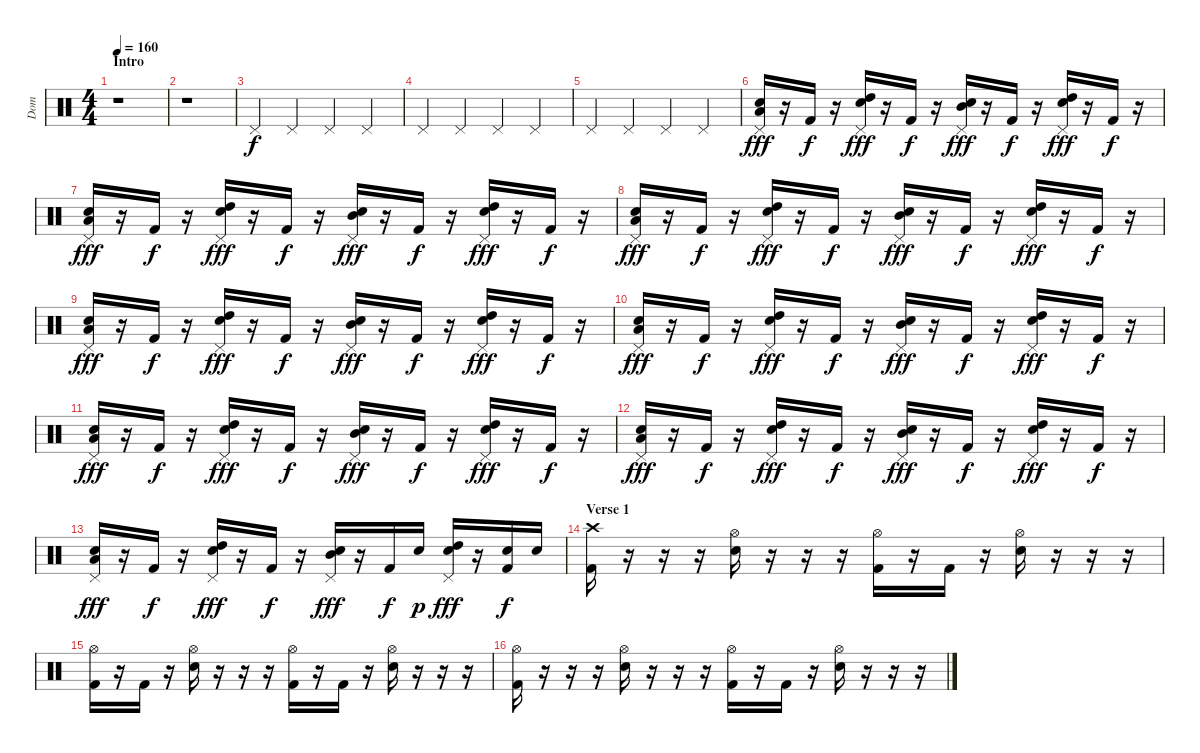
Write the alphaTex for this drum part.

\track ("Dom" "Dom") {instrument percussion}
\staff {score}
\articulation defaults
\ts (4 4)
\section ("" "Intro")
\tempo 160
\clef neutral
\ks c
r.1{dy f} |
r.1 |
"Pedal Hi-Hat (hit)".4 "Pedal Hi-Hat (hit)".4 "Pedal Hi-Hat (hit)".4 "Pedal Hi-Hat (hit)".4 |
"Pedal Hi-Hat (hit)".4 "Pedal Hi-Hat (hit)".4 "Pedal Hi-Hat (hit)".4 "Pedal Hi-Hat (hit)".4 |
"Pedal Hi-Hat (hit)".4 "Pedal Hi-Hat (hit)".4 "Pedal Hi-Hat (hit)".4 "Pedal Hi-Hat (hit)".4 |
("Pedal Hi-Hat (hit)" "Low Tom (hit)" "Electric Snare (hit)").16{dy fff} r.16 "Kick (hit) 2".16{dy f} r.16 ("Pedal Hi-Hat (hit)" "High Tom (hit)" "Electric Snare (hit)").16{dy fff} r.16 "Kick (hit) 2".16{dy f} r.16 ("Pedal Hi-Hat (hit)" "Mid Tom (hit)" "Electric Snare (hit)").16{dy fff} r.16 "Kick (hit) 2".16{dy f} r.16 ("Pedal Hi-Hat (hit)" "High Tom (hit)" "Electric Snare (hit)").16{dy fff} r.16 "Kick (hit) 2".16{dy f} r.16 |
("Pedal Hi-Hat (hit)" "Low Tom (hit)" "Electric Snare (hit)").16{dy fff} r.16 "Kick (hit) 2".16{dy f} r.16 ("Pedal Hi-Hat (hit)" "High Tom (hit)" "Electric Snare (hit)").16{dy fff} r.16 "Kick (hit) 2".16{dy f} r.16 ("Pedal Hi-Hat (hit)" "Mid Tom (hit)" "Electric Snare (hit)").16{dy fff} r.16 "Kick (hit) 2".16{dy f} r.16 ("Pedal Hi-Hat (hit)" "High Tom (hit)" "Electric Snare (hit)").16{dy fff} r.16 "Kick (hit) 2".16{dy f} r.16 |
("Pedal Hi-Hat (hit)" "Low Tom (hit)" "Electric Snare (hit)").16{dy fff} r.16 "Kick (hit) 2".16{dy f} r.16 ("Pedal Hi-Hat (hit)" "High Tom (hit)" "Electric Snare (hit)").16{dy fff} r.16 "Kick (hit) 2".16{dy f} r.16 ("Pedal Hi-Hat (hit)" "Mid Tom (hit)" "Electric Snare (hit)").16{dy fff} r.16 "Kick (hit) 2".16{dy f} r.16 ("Pedal Hi-Hat (hit)" "High Tom (hit)" "Electric Snare (hit)").16{dy fff} r.16 "Kick (hit) 2".16{dy f} r.16 |
("Pedal Hi-Hat (hit)" "Low Tom (hit)" "Electric Snare (hit)").16{dy fff} r.16 "Kick (hit) 2".16{dy f} r.16 ("Pedal Hi-Hat (hit)" "High Tom (hit)" "Electric Snare (hit)").16{dy fff} r.16 "Kick (hit) 2".16{dy f} r.16 ("Pedal Hi-Hat (hit)" "Mid Tom (hit)" "Electric Snare (hit)").16{dy fff} r.16 "Kick (hit) 2".16{dy f} r.16 ("Pedal Hi-Hat (hit)" "High Tom (hit)" "Electric Snare (hit)").16{dy fff} r.16 "Kick (hit) 2".16{dy f} r.16 |
("Pedal Hi-Hat (hit)" "Low Tom (hit)" "Electric Snare (hit)").16{dy fff} r.16 "Kick (hit) 2".16{dy f} r.16 ("Pedal Hi-Hat (hit)" "High Tom (hit)" "Electric Snare (hit)").16{dy fff} r.16 "Kick (hit) 2".16{dy f} r.16 ("Pedal Hi-Hat (hit)" "Mid Tom (hit)" "Electric Snare (hit)").16{dy fff} r.16 "Kick (hit) 2".16{dy f} r.16 ("Pedal Hi-Hat (hit)" "High Tom (hit)" "Electric Snare (hit)").16{dy fff} r.16 "Kick (hit) 2".16{dy f} r.16 |
("Pedal Hi-Hat (hit)" "Low Tom (hit)" "Electric Snare (hit)").16{dy fff} r.16 "Kick (hit) 2".16{dy f} r.16 ("Pedal Hi-Hat (hit)" "High Tom (hit)" "Electric Snare (hit)").16{dy fff} r.16 "Kick (hit) 2".16{dy f} r.16 ("Pedal Hi-Hat (hit)" "Mid Tom (hit)" "Electric Snare (hit)").16{dy fff} r.16 "Kick (hit) 2".16{dy f} r.16 ("Pedal Hi-Hat (hit)" "High Tom (hit)" "Electric Snare (hit)").16{dy fff} r.16 "Kick (hit) 2".16{dy f} r.16 |
("Pedal Hi-Hat (hit)" "Low Tom (hit)" "Electric Snare (hit)").16{dy fff} r.16 "Kick (hit) 2".16{dy f} r.16 ("Pedal Hi-Hat (hit)" "High Tom (hit)" "Electric Snare (hit)").16{dy fff} r.16 "Kick (hit) 2".16{dy f} r.16 ("Pedal Hi-Hat (hit)" "Mid Tom (hit)" "Electric Snare (hit)").16{dy fff} r.16 "Kick (hit) 2".16{dy f} r.16 ("Pedal Hi-Hat (hit)" "High Tom (hit)" "Electric Snare (hit)").16{dy fff} r.16 "Kick (hit) 2".16{dy f} r.16 |
("Pedal Hi-Hat (hit)" "Low Tom (hit)" "Electric Snare (hit)").16{dy fff} r.16 "Kick (hit) 2".16{dy f} r.16 ("Pedal Hi-Hat (hit)" "High Tom (hit)" "Electric Snare (hit)").16{dy fff} r.16 "Kick (hit) 2".16{dy f} r.16 ("Pedal Hi-Hat (hit)" "Mid Tom (hit)" "Electric Snare (hit)").16{dy fff} r.16 "Kick (hit) 2".16{dy f} "Electric Snare (hit)".16{dy p} ("Pedal Hi-Hat (hit)" "High Tom (hit)" "Electric Snare (hit)").16{dy fff} r.16 ("Electric Snare (hit)" "Kick (hit) 2").16{dy f} "Electric Snare (hit)".16 |
\section ("" "Verse 1")
("Crash high (hit)" "Kick (hit) 2").16 r.16 r.16 r.16 ("Hi-Hat (open)" "Electric Snare (hit)").16 r.16 r.16 r.16 ("Hi-Hat (open)" "Kick (hit) 2").16 r.16 "Kick (hit) 2".16 r.16 ("Hi-Hat (open)" "Electric Snare (hit)").16 r.16 r.16 r.16 |
("Hi-Hat (open)" "Kick (hit) 2").16 r.16 "Kick (hit) 2".16 r.16 ("Hi-Hat (open)" "Electric Snare (hit)").16 r.16 r.16 r.16 ("Hi-Hat (open)" "Kick (hit) 2").16 r.16 "Kick (hit) 2".16 r.16 ("Hi-Hat (open)" "Electric Snare (hit)").16 r.16 r.16 r.16 |
("Hi-Hat (open)" "Kick (hit) 2").16 r.16 r.16 r.16 ("Hi-Hat (open)" "Electric Snare (hit)").16 r.16 r.16 r.16 ("Hi-Hat (open)" "Kick (hit) 2").16 r.16 "Kick (hit) 2".16 r.16 ("Hi-Hat (open)" "Electric Snare (hit)").16 r.16 r.16 r.16
